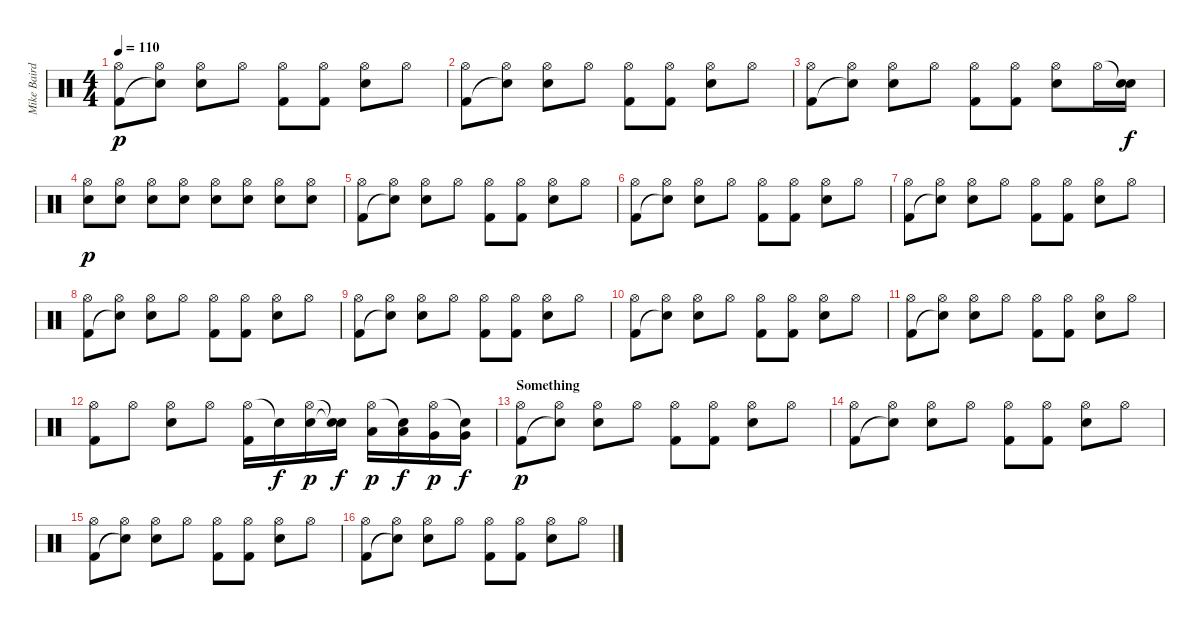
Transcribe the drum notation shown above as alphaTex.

\track ("Mike Baird [drums]" "Mike Baird") {instrument percussion}
\staff {score}
\articulation defaults
\ts (4 4)
\tempo 110
\clef neutral
\ks c
("Hi-Hat (open)" "Kick (hit) 2").8{dy p} ("Hi-Hat (open)" "Snare (hit)"{t}).8 ("Hi-Hat (open)" "Electric Snare (hit)").8 "Hi-Hat (open)".8 ("Hi-Hat (open)" "Kick (hit) 2").8 ("Hi-Hat (open)" "Kick (hit) 2").8 ("Hi-Hat (open)" "Electric Snare (hit)").8 "Hi-Hat (open)".8 |
("Hi-Hat (open)" "Kick (hit) 2").8 ("Hi-Hat (open)" "Snare (hit)"{t}).8 ("Hi-Hat (open)" "Electric Snare (hit)").8 "Hi-Hat (open)".8 ("Hi-Hat (open)" "Kick (hit) 2").8 ("Hi-Hat (open)" "Kick (hit) 2").8 ("Hi-Hat (open)" "Electric Snare (hit)").8 "Hi-Hat (open)".8 |
("Hi-Hat (open)" "Kick (hit) 2").8 ("Hi-Hat (open)" "Snare (hit)"{t}).8 ("Hi-Hat (open)" "Electric Snare (hit)").8 "Hi-Hat (open)".8 ("Hi-Hat (open)" "Kick (hit) 2").8 ("Hi-Hat (open)" "Kick (hit) 2").8 ("Hi-Hat (open)" "Electric Snare (hit)").8 "Hi-Hat (open)".16 ("Snare (hit)"{t} "Electric Snare (hit)").16{dy f} |
("Hi-Hat (open)" "Electric Snare (hit)").8{dy p} ("Hi-Hat (open)" "Electric Snare (hit)").8 ("Hi-Hat (open)" "Electric Snare (hit)").8 ("Hi-Hat (open)" "Electric Snare (hit)").8 ("Hi-Hat (open)" "Electric Snare (hit)").8 ("Hi-Hat (open)" "Electric Snare (hit)").8 ("Hi-Hat (open)" "Electric Snare (hit)").8 ("Hi-Hat (open)" "Electric Snare (hit)").8 |
("Hi-Hat (open)" "Kick (hit) 2").8 ("Hi-Hat (open)" "Snare (hit)"{t}).8 ("Hi-Hat (open)" "Electric Snare (hit)").8 "Hi-Hat (open)".8 ("Hi-Hat (open)" "Kick (hit) 2").8 ("Hi-Hat (open)" "Kick (hit) 2").8 ("Hi-Hat (open)" "Electric Snare (hit)").8 "Hi-Hat (open)".8 |
("Hi-Hat (open)" "Kick (hit) 2").8 ("Hi-Hat (open)" "Snare (hit)"{t}).8 ("Hi-Hat (open)" "Electric Snare (hit)").8 "Hi-Hat (open)".8 ("Hi-Hat (open)" "Kick (hit) 2").8 ("Hi-Hat (open)" "Kick (hit) 2").8 ("Hi-Hat (open)" "Electric Snare (hit)").8 "Hi-Hat (open)".8 |
("Hi-Hat (open)" "Kick (hit) 2").8 ("Hi-Hat (open)" "Snare (hit)"{t}).8 ("Hi-Hat (open)" "Electric Snare (hit)").8 "Hi-Hat (open)".8 ("Hi-Hat (open)" "Kick (hit) 2").8 ("Hi-Hat (open)" "Kick (hit) 2").8 ("Hi-Hat (open)" "Electric Snare (hit)").8 "Hi-Hat (open)".8 |
("Hi-Hat (open)" "Kick (hit) 2").8 ("Hi-Hat (open)" "Snare (hit)"{t}).8 ("Hi-Hat (open)" "Electric Snare (hit)").8 "Hi-Hat (open)".8 ("Hi-Hat (open)" "Kick (hit) 2").8 ("Hi-Hat (open)" "Kick (hit) 2").8 ("Hi-Hat (open)" "Electric Snare (hit)").8 "Hi-Hat (open)".8 |
("Hi-Hat (open)" "Kick (hit) 2").8 ("Hi-Hat (open)" "Snare (hit)"{t}).8 ("Hi-Hat (open)" "Electric Snare (hit)").8 "Hi-Hat (open)".8 ("Hi-Hat (open)" "Kick (hit) 2").8 ("Hi-Hat (open)" "Kick (hit) 2").8 ("Hi-Hat (open)" "Electric Snare (hit)").8 "Hi-Hat (open)".8 |
("Hi-Hat (open)" "Kick (hit) 2").8 ("Hi-Hat (open)" "Snare (hit)"{t}).8 ("Hi-Hat (open)" "Electric Snare (hit)").8 "Hi-Hat (open)".8 ("Hi-Hat (open)" "Kick (hit) 2").8 ("Hi-Hat (open)" "Kick (hit) 2").8 ("Hi-Hat (open)" "Electric Snare (hit)").8 "Hi-Hat (open)".8 |
("Hi-Hat (open)" "Kick (hit) 2").8 ("Hi-Hat (open)" "Snare (hit)"{t}).8 ("Hi-Hat (open)" "Electric Snare (hit)").8 "Hi-Hat (open)".8 ("Hi-Hat (open)" "Kick (hit) 2").8 ("Hi-Hat (open)" "Kick (hit) 2").8 ("Hi-Hat (open)" "Electric Snare (hit)").8 "Hi-Hat (open)".8 |
("Hi-Hat (open)" "Kick (hit) 2").8 "Hi-Hat (open)".8 ("Hi-Hat (open)" "Electric Snare (hit)").8 "Hi-Hat (open)".8 ("Hi-Hat (open)" "Kick (hit) 2").16 "Snare (hit)"{t}.16{dy f} ("Hi-Hat (open)" "Electric Snare (hit)").16{dy p} ("Snare (hit)"{t} "Snare (hit)"{t}).16{dy f} ("Hi-Hat (open)" "Low Tom (hit)").16{dy p} ("Snare (hit)"{t} "Low Tom (hit)").16{dy f} ("Hi-Hat (open)" "Very Low Tom (hit)").16{dy p} ("Snare (hit)"{t} "Very Low Tom (hit)").16{dy f} |
\section ("" "Something")
("Hi-Hat (open)" "Kick (hit) 2").8{dy p} ("Hi-Hat (open)" "Snare (hit)"{t}).8 ("Hi-Hat (open)" "Electric Snare (hit)").8 "Hi-Hat (open)".8 ("Hi-Hat (open)" "Kick (hit) 2").8 ("Hi-Hat (open)" "Kick (hit) 2").8 ("Hi-Hat (open)" "Electric Snare (hit)").8 "Hi-Hat (open)".8 |
("Hi-Hat (open)" "Kick (hit) 2").8 ("Hi-Hat (open)" "Snare (hit)"{t}).8 ("Hi-Hat (open)" "Electric Snare (hit)").8 "Hi-Hat (open)".8 ("Hi-Hat (open)" "Kick (hit) 2").8 ("Hi-Hat (open)" "Kick (hit) 2").8 ("Hi-Hat (open)" "Electric Snare (hit)").8 "Hi-Hat (open)".8 |
("Hi-Hat (open)" "Kick (hit) 2").8 ("Hi-Hat (open)" "Snare (hit)"{t}).8 ("Hi-Hat (open)" "Electric Snare (hit)").8 "Hi-Hat (open)".8 ("Hi-Hat (open)" "Kick (hit) 2").8 ("Hi-Hat (open)" "Kick (hit) 2").8 ("Hi-Hat (open)" "Electric Snare (hit)").8 "Hi-Hat (open)".8 |
("Hi-Hat (open)" "Kick (hit) 2").8 ("Hi-Hat (open)" "Snare (hit)"{t}).8 ("Hi-Hat (open)" "Electric Snare (hit)").8 "Hi-Hat (open)".8 ("Hi-Hat (open)" "Kick (hit) 2").8 ("Hi-Hat (open)" "Kick (hit) 2").8 ("Hi-Hat (open)" "Electric Snare (hit)").8 "Hi-Hat (open)".8
